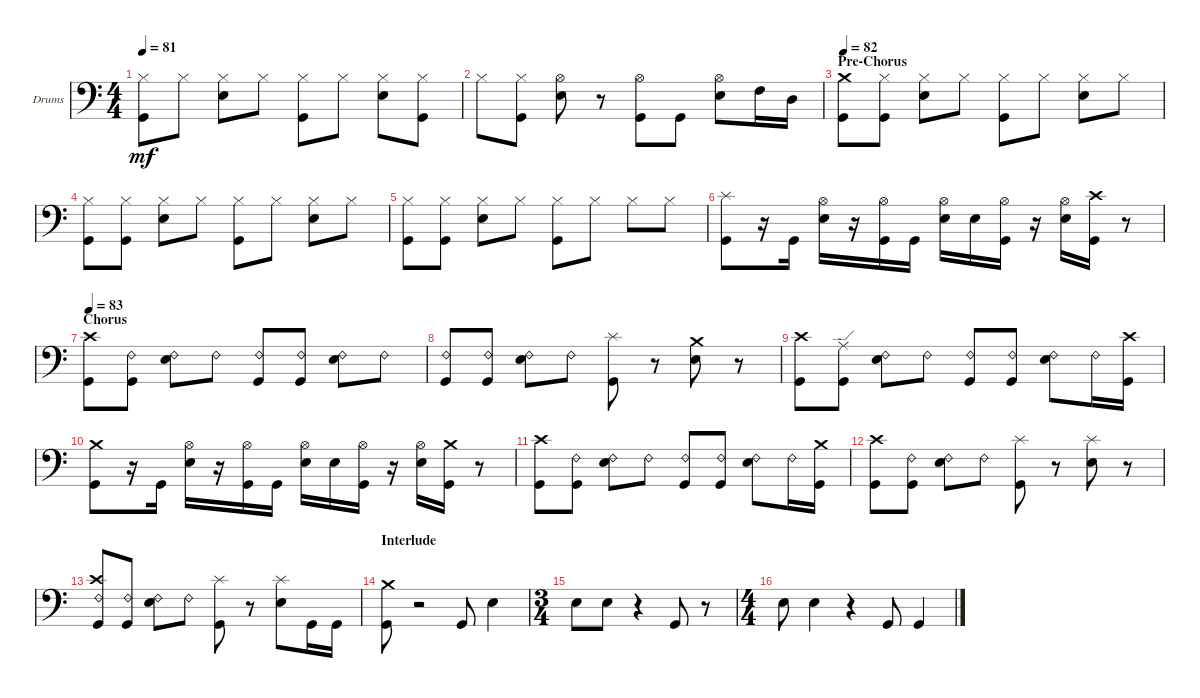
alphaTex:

\bracketExtendMode groupsimilarinstruments
\firstSystemTrackNameOrientation horizontal
\otherSystemsTrackNameOrientation horizontal
\track ("Drums" "Drums") {instrument percussion}
\staff {score}
\articulation defaults
\ts (4 4)
\tempo 81
\clef f4
\scale
0.333333
\ks c
("Hi-Hat (closed)" "Kick (hit)").8{dy mf} "Hi-Hat (closed)".8 ("Hi-Hat (closed)" "Snare (hit) 2").8 "Hi-Hat (closed)".8 ("Hi-Hat (closed)" "Kick (hit)").8 "Hi-Hat (closed)".8 ("Hi-Hat (closed)" "Snare (hit) 2").8 ("Hi-Hat (closed)" "Kick (hit)").8 |
\scale
0.333333 "Hi-Hat (closed)".8 ("Hi-Hat (closed)" "Kick (hit)").8 ("Snare (hit) 2" "Hi-Hat (open)").8 r.8 ("Hi-Hat (open)" "Kick (hit)").8 "Kick (hit)".8 ("Snare (hit) 2" "Hi-Hat (open)").8 "High Tom (hit)".16 "Mid Tom (hit)".16 |
\section ("" "Pre-Chorus")
\tempo 82
\scale
0.333333 ("Kick (hit)" "Crash medium (hit)").8 ("Hi-Hat (closed)" "Kick (hit)").8 ("Hi-Hat (closed)" "Snare (hit) 2").8 "Hi-Hat (closed)".8 ("Hi-Hat (closed)" "Kick (hit)").8 "Hi-Hat (closed)".8 ("Hi-Hat (closed)" "Snare (hit) 2").8 "Hi-Hat (closed)".8 |
\scale
0.333333 ("Hi-Hat (closed)" "Kick (hit)").8 ("Hi-Hat (closed)" "Kick (hit)").8 ("Hi-Hat (closed)" "Snare (hit) 2").8 "Hi-Hat (closed)".8 ("Hi-Hat (closed)" "Kick (hit)").8 "Hi-Hat (closed)".8 ("Hi-Hat (closed)" "Snare (hit) 2").8 "Hi-Hat (closed)".8 |
\scale
0.333333 ("Hi-Hat (closed)" "Kick (hit)").8 ("Hi-Hat (closed)" "Kick (hit)").8 ("Hi-Hat (closed)" "Snare (hit) 2").8 "Hi-Hat (closed)".8 ("Hi-Hat (closed)" "Kick (hit)").8 "Hi-Hat (closed)".8 "Hi-Hat (closed)".8 "Hi-Hat (closed)".8 |
\scale
0.333333 ("Kick (hit)" "Splash (hit)").8 r.16 "Kick (hit)".16 ("Snare (hit) 2" "Hi-Hat (open)").16 r.16 ("Kick (hit)" "Hi-Hat (open)").16 "Kick (hit)".16 ("Snare (hit) 2" "Hi-Hat (open)").16 "Snare (hit) 2".16 ("Kick (hit)" "Hi-Hat (open)").16 r.16 ("Snare (hit) 2" "Hi-Hat (open)").16 ("Kick (hit)" "Crash high (hit)").16 r.8 |
\section ("" "Chorus")
\tempo 83
\scale
0.333333 ("Kick (hit)" "Crash high (hit)").8 ("Kick (hit)" "Ride (bell) 2").8 ("Ride (bell) 2" "Snare (hit) 2").8 "Ride (bell) 2".8 ("Ride (bell) 2" "Kick (hit)").8 ("Ride (bell) 2" "Kick (hit)").8 ("Ride (bell) 2" "Snare (hit) 2").8 "Ride (bell) 2".8 |
\scale
0.333333 ("Kick (hit)" "Ride (bell) 2").8 ("Ride (bell) 2" "Kick (hit)").8 ("Ride (bell) 2" "Snare (hit) 2").8 "Ride (bell) 2".8 ("Kick (hit)" "Splash (hit)").8 r.8 ("Snare (hit) 2" "Crash medium (hit)").8 r.8 |
\scale
0.333333 ("Kick (hit)" "Crash high (hit)").8 ("Kick (hit)" "Ride (edge)").8 ("Snare (hit) 2" "Ride (bell) 2").8 "Ride (bell) 2".8 ("Ride (bell) 2" "Kick (hit)").8 ("Ride (bell) 2" "Kick (hit)").8 ("Ride (bell) 2" "Snare (hit) 2").8 "Ride (bell) 2".16 ("Crash high (hit)" "Kick (hit)").16 |
\scale
0.333333 ("Kick (hit)" "Crash medium (hit)").8 r.16 "Kick (hit)".16 ("Snare (hit) 2" "Hi-Hat (open)").16 r.16 ("Kick (hit)" "Hi-Hat (open)").16 "Kick (hit)".16 ("Snare (hit) 2" "Hi-Hat (open)").16 "Snare (hit) 2".16 ("Kick (hit)" "Hi-Hat (open)").16 r.16 ("Snare (hit) 2" "Hi-Hat (open)").16 ("Kick (hit)" "Crash medium (hit)").16 r.8 |
\scale
0.333333 ("Kick (hit)" "Crash high (hit)").8 ("Kick (hit)" "Ride (bell) 2").8 ("Ride (bell) 2" "Snare (hit) 2").8 "Ride (bell) 2".8 ("Ride (bell) 2" "Kick (hit)").8 ("Ride (bell) 2" "Kick (hit)").8 ("Ride (bell) 2" "Snare (hit) 2").8 "Ride (bell) 2".16 ("Crash medium (hit)" "Kick (hit)").16 |
\scale
0.333333 ("Kick (hit)" "Crash high (hit)").8 ("Kick (hit)" "Ride (bell) 2").8 ("Ride (bell) 2" "Snare (hit) 2").8 "Ride (bell) 2".8 ("Splash (hit)" "Kick (hit)").8 r.8 ("Snare (hit) 2" "Splash (hit)").8 r.8 |
\scale
0.333333 ("Kick (hit)" "Crash high (hit)" "Ride (bell) 2").8 ("Kick (hit)" "Ride (bell) 2").8 ("Ride (bell) 2" "Snare (hit) 2").8 "Ride (bell) 2".8 ("Kick (hit)" "Splash (hit)").8 r.8 ("Snare (hit) 2" "Splash (hit)").8 "Kick (hit)".16 "Kick (hit)".16 |
\section ("" "Interlude")
\scale
0.333333 ("Kick (hit)" "Crash medium (hit)").8 r.2 "Kick (hit)".8 "Snare (hit) 2".4 |
\ts (3 4)
\scale
0.391473 "Snare (hit) 2".8 "Snare (hit) 2".8 r.4 "Kick (hit)".8 r.8 |
\ts (4 4)
\scale
0.391473 "Snare (hit) 2".8 "Snare (hit) 2".4 r.4 "Kick (hit)".8 "Kick (hit)".4
